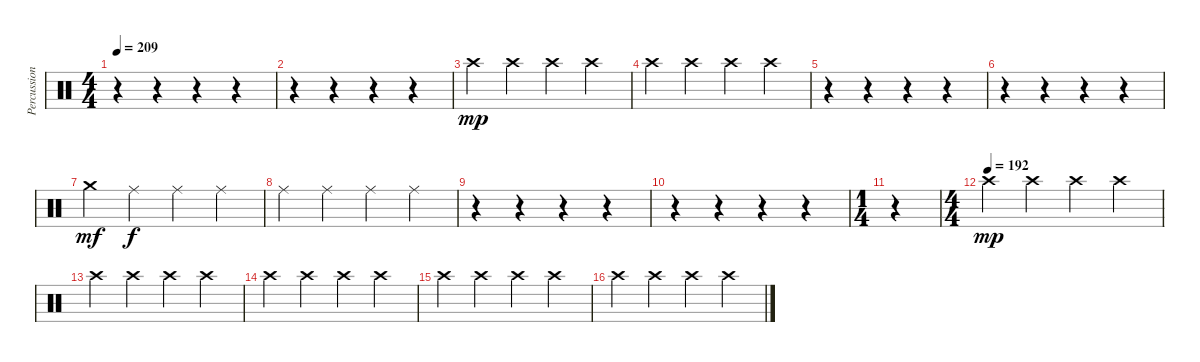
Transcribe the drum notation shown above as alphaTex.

\track ("Percussion2" "Percussion") {instrument percussion}
\staff {score}
\articulation defaults
\ts (4 4)
\tempo 209
\clef neutral
\ks c
r.4{dy mp} r.4 r.4 r.4 |
r.4 r.4 r.4 r.4 |
"Crash high (hit)".4 "Crash high (hit)".4 "Crash high (hit)".4 "Crash high (hit)".4 |
"Crash high (hit)".4 "Crash high (hit)".4 "Crash high (hit)".4 "Crash high (hit)".4 |
r.4 r.4 r.4 r.4 |
r.4 r.4 r.4 r.4 |
"Crash medium (hit)".4{dy mf} "Ride (middle)".4{dy f} "Ride (middle)".4 "Ride (middle)".4 |
"Ride (middle)".4 "Ride (middle)".4 "Ride (middle)".4 "Ride (middle)".4 |
r.4 r.4 r.4 r.4 |
r.4 r.4 r.4 r.4 |
\ts (1 4)
r.4 |
\ts (4 4)
\tempo (192)
"Crash high (hit)".4{dy mp} "Crash high (hit)".4 "Crash high (hit)".4 "Crash high (hit)".4 |
"Crash high (hit)".4 "Crash high (hit)".4 "Crash high (hit)".4 "Crash high (hit)".4 |
"Crash high (hit)".4 "Crash high (hit)".4 "Crash high (hit)".4 "Crash high (hit)".4 |
"Crash high (hit)".4 "Crash high (hit)".4 "Crash high (hit)".4 "Crash high (hit)".4 |
"Crash high (hit)".4 "Crash high (hit)".4 "Crash high (hit)".4 "Crash high (hit)".4
